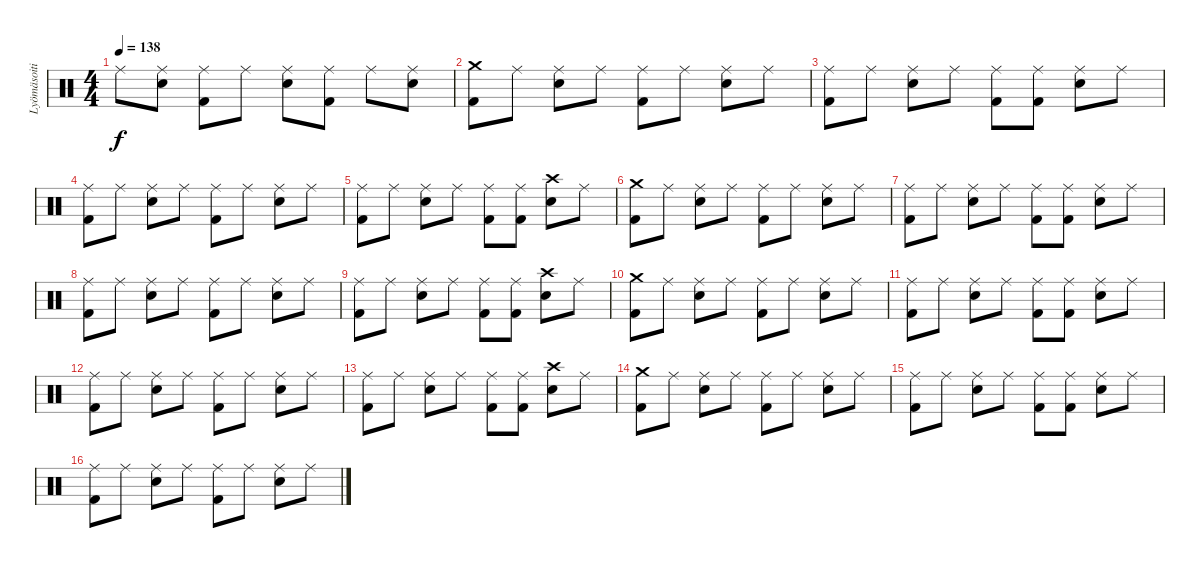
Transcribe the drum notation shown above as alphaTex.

\track ("Lyömäsoitin" "Lyömäsoiti") {instrument percussion}
\staff {score}
\articulation defaults
\ts (4 4)
\tempo 138
\clef neutral
\ks c "Ride (middle)".8{dy f}
("Ride (middle)" "Electric Snare (hit)").8 ("Ride (middle)" "Kick (hit) 2").8 "Ride (middle)".8 ("Ride (middle)" "Electric Snare (hit)").8 ("Ride (middle)" "Kick (hit) 2").8 "Ride (middle)".8 ("Ride (middle)" "Electric Snare (hit)").8 |
("Crash medium (hit)" "Kick (hit) 2").8 "Ride (middle)".8 ("Ride (middle)" "Electric Snare (hit)").8 "Ride (middle)".8 ("Ride (middle)" "Kick (hit) 2").8 "Ride (middle)".8 ("Ride (middle)" "Electric Snare (hit)").8 "Ride (middle)".8 |
("Ride (middle)" "Kick (hit) 2").8 "Ride (middle)".8 ("Ride (middle)" "Electric Snare (hit)").8 "Ride (middle)".8 ("Ride (middle)" "Kick (hit) 2").8 ("Ride (middle)" "Kick (hit) 2").8 ("Ride (middle)" "Electric Snare (hit)").8 "Ride (middle)".8 |
("Ride (middle)" "Kick (hit) 2").8 "Ride (middle)".8 ("Ride (middle)" "Electric Snare (hit)").8 "Ride (middle)".8 ("Ride (middle)" "Kick (hit) 2").8 "Ride (middle)".8 ("Ride (middle)" "Electric Snare (hit)").8 "Ride (middle)".8 |
("Ride (middle)" "Kick (hit) 2").8 "Ride (middle)".8 ("Ride (middle)" "Electric Snare (hit)").8 "Ride (middle)".8 ("Ride (middle)" "Kick (hit) 2").8 ("Ride (middle)" "Kick (hit) 2").8 ("Crash high (hit)" "Electric Snare (hit)").8 "Ride (middle)".8 |
("Crash medium (hit)" "Kick (hit) 2").8 "Ride (middle)".8 ("Ride (middle)" "Electric Snare (hit)").8 "Ride (middle)".8 ("Ride (middle)" "Kick (hit) 2").8 "Ride (middle)".8 ("Ride (middle)" "Electric Snare (hit)").8 "Ride (middle)".8 |
("Ride (middle)" "Kick (hit) 2").8 "Ride (middle)".8 ("Ride (middle)" "Electric Snare (hit)").8 "Ride (middle)".8 ("Ride (middle)" "Kick (hit) 2").8 ("Ride (middle)" "Kick (hit) 2").8 ("Ride (middle)" "Electric Snare (hit)").8 "Ride (middle)".8 |
("Ride (middle)" "Kick (hit) 2").8 "Ride (middle)".8 ("Ride (middle)" "Electric Snare (hit)").8 "Ride (middle)".8 ("Ride (middle)" "Kick (hit) 2").8 "Ride (middle)".8 ("Ride (middle)" "Electric Snare (hit)").8 "Ride (middle)".8 |
("Ride (middle)" "Kick (hit) 2").8 "Ride (middle)".8 ("Ride (middle)" "Electric Snare (hit)").8 "Ride (middle)".8 ("Ride (middle)" "Kick (hit) 2").8 ("Ride (middle)" "Kick (hit) 2").8 ("Crash high (hit)" "Electric Snare (hit)").8 "Ride (middle)".8 |
("Crash medium (hit)" "Kick (hit) 2").8 "Ride (middle)".8 ("Ride (middle)" "Electric Snare (hit)").8 "Ride (middle)".8 ("Ride (middle)" "Kick (hit) 2").8 "Ride (middle)".8 ("Ride (middle)" "Electric Snare (hit)").8 "Ride (middle)".8 |
("Ride (middle)" "Kick (hit) 2").8 "Ride (middle)".8 ("Ride (middle)" "Electric Snare (hit)").8 "Ride (middle)".8 ("Ride (middle)" "Kick (hit) 2").8 ("Ride (middle)" "Kick (hit) 2").8 ("Ride (middle)" "Electric Snare (hit)").8 "Ride (middle)".8 |
("Ride (middle)" "Kick (hit) 2").8 "Ride (middle)".8 ("Ride (middle)" "Electric Snare (hit)").8 "Ride (middle)".8 ("Ride (middle)" "Kick (hit) 2").8 "Ride (middle)".8 ("Ride (middle)" "Electric Snare (hit)").8 "Ride (middle)".8 |
("Ride (middle)" "Kick (hit) 2").8 "Ride (middle)".8 ("Ride (middle)" "Electric Snare (hit)").8 "Ride (middle)".8 ("Ride (middle)" "Kick (hit) 2").8 ("Ride (middle)" "Kick (hit) 2").8 ("Crash high (hit)" "Electric Snare (hit)").8 "Ride (middle)".8 |
("Crash medium (hit)" "Kick (hit) 2").8 "Ride (middle)".8 ("Ride (middle)" "Electric Snare (hit)").8 "Ride (middle)".8 ("Ride (middle)" "Kick (hit) 2").8 "Ride (middle)".8 ("Ride (middle)" "Electric Snare (hit)").8 "Ride (middle)".8 |
("Ride (middle)" "Kick (hit) 2").8 "Ride (middle)".8 ("Ride (middle)" "Electric Snare (hit)").8 "Ride (middle)".8 ("Ride (middle)" "Kick (hit) 2").8 ("Ride (middle)" "Kick (hit) 2").8 ("Ride (middle)" "Electric Snare (hit)").8 "Ride (middle)".8 |
("Ride (middle)" "Kick (hit) 2").8 "Ride (middle)".8 ("Ride (middle)" "Electric Snare (hit)").8 "Ride (middle)".8 ("Ride (middle)" "Kick (hit) 2").8 "Ride (middle)".8 ("Ride (middle)" "Electric Snare (hit)").8 "Ride (middle)".8
